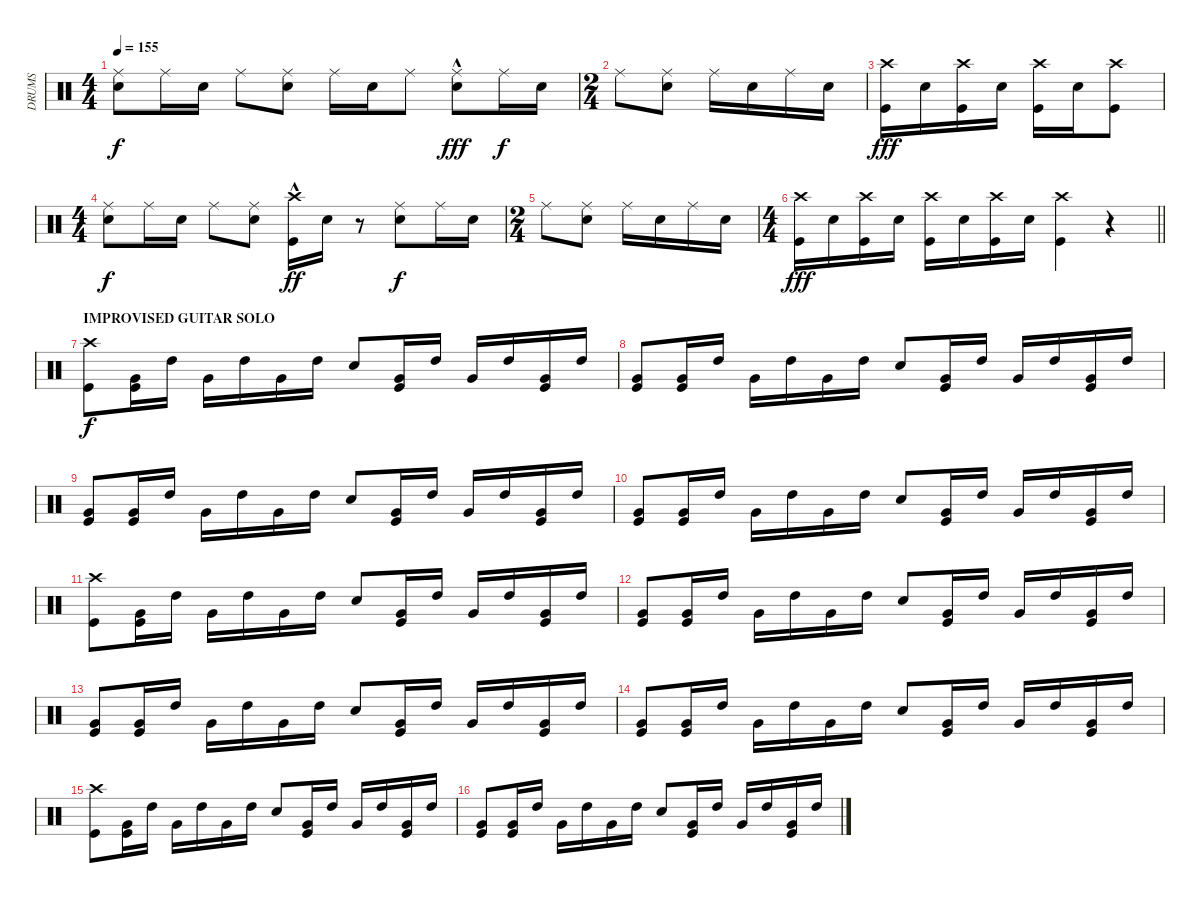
\track ("DRUMS" "DRUMS") {instrument percussion}
\staff {score}
\articulation defaults
\ts (4 4)
\tempo 155
\clef neutral
\ks c
("Ride (middle)" "Snare (hit) 2").8{dy f} "Ride (middle)".16 "Snare (hit) 2".16 "Ride (middle)".8 ("Ride (middle)" "Snare (hit) 2").8 "Ride (middle)".16 "Snare (hit) 2".16 "Ride (middle)".8 ("Ride (middle)" "Snare (hit) 2"{hac}).8{dy fff} "Ride (middle)".16{dy f} "Snare (hit) 2".16 |
\ts (2 4)
"Ride (middle)".8 ("Snare (hit) 2" "Ride (middle)").8 "Ride (middle)".16 "Snare (hit) 2".16 "Ride (middle)".16 "Snare (hit) 2".16 |
("Crash high (hit)" "Kick (hit)").16{dy fff} "Snare (hit) 2".16 ("Kick (hit)" "Crash high (hit)").16 "Snare (hit) 2".16 ("Kick (hit)" "Crash high (hit)").16 "Snare (hit) 2".16 ("Crash high (hit)" "Kick (hit)").8 |
\ts (4 4)
("Ride (middle)" "Snare (hit) 2").8{dy f} "Ride (middle)".16 "Snare (hit) 2".16 "Ride (middle)".8 ("Ride (middle)" "Snare (hit) 2").8 ("Kick (hit)"{hac} "Crash high (hit)").16{dy ff} "Snare (hit) 2".16 r.8 ("Snare (hit) 2" "Ride (middle)").8{dy f} "Ride (middle)".16 "Snare (hit) 2".16 |
\ts (2 4)
"Ride (middle)".8 ("Snare (hit) 2" "Ride (middle)").8 "Ride (middle)".16 "Snare (hit) 2".16 "Ride (middle)".16 "Snare (hit) 2".16 |
\ts (4 4)
\barLineRight lightlight
("Crash high (hit)" "Kick (hit)").16{dy fff} "Snare (hit) 2".16 ("Kick (hit)" "Crash high (hit)").16 "Snare (hit) 2".16 ("Kick (hit)" "Crash high (hit)").16 "Snare (hit) 2".16 ("Kick (hit)" "Crash high (hit)").16 "Snare (hit) 2".16 ("Crash high (hit)" "Kick (hit)").4 r.4 |
\section ("" "IMPROVISED GUITAR SOLO")
("Crash high (hit)" "Kick (hit)").8{dy f} ("Kick (hit)" "Very Low Tom (hit)").16 "High Tom (hit)".16 "Very Low Tom (hit)".16 "High Tom (hit)".16 "Very Low Tom (hit)".16 "High Tom (hit)".16 "Snare (hit) 2".8 ("Very Low Tom (hit)" "Kick (hit)").16 "High Tom (hit)".16 "Very Low Tom (hit)".16 "High Tom (hit)".16 ("Very Low Tom (hit)" "Kick (hit)").16 "High Tom (hit)".16 |
("Very Low Tom (hit)" "Kick (hit)").8 ("Kick (hit)" "Very Low Tom (hit)").16 "High Tom (hit)".16 "Very Low Tom (hit)".16 "High Tom (hit)".16 "Very Low Tom (hit)".16 "High Tom (hit)".16 "Snare (hit) 2".8 ("Very Low Tom (hit)" "Kick (hit)").16 "High Tom (hit)".16 "Very Low Tom (hit)".16 "High Tom (hit)".16 ("Very Low Tom (hit)" "Kick (hit)").16 "High Tom (hit)".16 |
("Very Low Tom (hit)" "Kick (hit)").8 ("Kick (hit)" "Very Low Tom (hit)").16 "High Tom (hit)".16 "Very Low Tom (hit)".16 "High Tom (hit)".16 "Very Low Tom (hit)".16 "High Tom (hit)".16 "Snare (hit) 2".8 ("Very Low Tom (hit)" "Kick (hit)").16 "High Tom (hit)".16 "Very Low Tom (hit)".16 "High Tom (hit)".16 ("Very Low Tom (hit)" "Kick (hit)").16 "High Tom (hit)".16 |
("Very Low Tom (hit)" "Kick (hit)").8 ("Kick (hit)" "Very Low Tom (hit)").16 "High Tom (hit)".16 "Very Low Tom (hit)".16 "High Tom (hit)".16 "Very Low Tom (hit)".16 "High Tom (hit)".16 "Snare (hit) 2".8 ("Very Low Tom (hit)" "Kick (hit)").16 "High Tom (hit)".16 "Very Low Tom (hit)".16 "High Tom (hit)".16 ("Very Low Tom (hit)" "Kick (hit)").16 "High Tom (hit)".16 |
("Crash high (hit)" "Kick (hit)").8 ("Kick (hit)" "Very Low Tom (hit)").16 "High Tom (hit)".16 "Very Low Tom (hit)".16 "High Tom (hit)".16 "Very Low Tom (hit)".16 "High Tom (hit)".16 "Snare (hit) 2".8 ("Very Low Tom (hit)" "Kick (hit)").16 "High Tom (hit)".16 "Very Low Tom (hit)".16 "High Tom (hit)".16 ("Very Low Tom (hit)" "Kick (hit)").16 "High Tom (hit)".16 |
("Very Low Tom (hit)" "Kick (hit)").8 ("Kick (hit)" "Very Low Tom (hit)").16 "High Tom (hit)".16 "Very Low Tom (hit)".16 "High Tom (hit)".16 "Very Low Tom (hit)".16 "High Tom (hit)".16 "Snare (hit) 2".8 ("Very Low Tom (hit)" "Kick (hit)").16 "High Tom (hit)".16 "Very Low Tom (hit)".16 "High Tom (hit)".16 ("Very Low Tom (hit)" "Kick (hit)").16 "High Tom (hit)".16 |
("Very Low Tom (hit)" "Kick (hit)").8 ("Kick (hit)" "Very Low Tom (hit)").16 "High Tom (hit)".16 "Very Low Tom (hit)".16 "High Tom (hit)".16 "Very Low Tom (hit)".16 "High Tom (hit)".16 "Snare (hit) 2".8 ("Very Low Tom (hit)" "Kick (hit)").16 "High Tom (hit)".16 "Very Low Tom (hit)".16 "High Tom (hit)".16 ("Very Low Tom (hit)" "Kick (hit)").16 "High Tom (hit)".16 |
("Very Low Tom (hit)" "Kick (hit)").8 ("Kick (hit)" "Very Low Tom (hit)").16 "High Tom (hit)".16 "Very Low Tom (hit)".16 "High Tom (hit)".16 "Very Low Tom (hit)".16 "High Tom (hit)".16 "Snare (hit) 2".8 ("Very Low Tom (hit)" "Kick (hit)").16 "High Tom (hit)".16 "Very Low Tom (hit)".16 "High Tom (hit)".16 ("Very Low Tom (hit)" "Kick (hit)").16 "High Tom (hit)".16 |
("Crash high (hit)" "Kick (hit)").8 ("Kick (hit)" "Very Low Tom (hit)").16 "High Tom (hit)".16 "Very Low Tom (hit)".16 "High Tom (hit)".16 "Very Low Tom (hit)".16 "High Tom (hit)".16 "Snare (hit) 2".8 ("Very Low Tom (hit)" "Kick (hit)").16 "High Tom (hit)".16 "Very Low Tom (hit)".16 "High Tom (hit)".16 ("Very Low Tom (hit)" "Kick (hit)").16 "High Tom (hit)".16 |
("Very Low Tom (hit)" "Kick (hit)").8 ("Kick (hit)" "Very Low Tom (hit)").16 "High Tom (hit)".16 "Very Low Tom (hit)".16 "High Tom (hit)".16 "Very Low Tom (hit)".16 "High Tom (hit)".16 "Snare (hit) 2".8 ("Very Low Tom (hit)" "Kick (hit)").16 "High Tom (hit)".16 "Very Low Tom (hit)".16 "High Tom (hit)".16 ("Very Low Tom (hit)" "Kick (hit)").16 "High Tom (hit)".16
